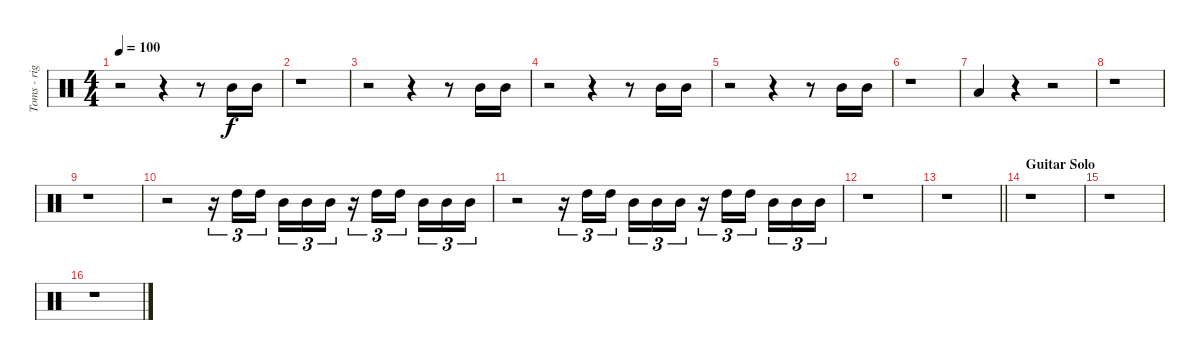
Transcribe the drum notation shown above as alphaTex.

\track ("Toms - right" "Toms - rig") {instrument percussion}
\staff {score}
\articulation defaults
\ts (4 4)
\tempo 100
\clef neutral
\ks c
r.2{dy f} r.4 r.8 "Mid Tom (hit)".16 "Mid Tom (hit)".16 |
r.1 |
r.2 r.4 r.8 "Mid Tom (hit)".16 "Mid Tom (hit)".16 |
r.2 r.4 r.8 "Mid Tom (hit)".16 "Mid Tom (hit)".16 |
r.2 r.4 r.8 "Mid Tom (hit)".16 "Mid Tom (hit)".16 |
r.1 |
"Low Tom (hit)".4 r.4 r.2 |
r.1 |
r.1 |
r.2 r.16{tu (3 2)} "High Tom (hit)".16{tu (3 2)} "High Tom (hit)".16{tu (3 2) beam splitsecondary} "Mid Tom (hit)".16{tu (3 2)} "Mid Tom (hit)".16{tu (3 2)} "Mid Tom (hit)".16{tu (3 2)} r.16{tu (3 2)} "High Tom (hit)".16{tu (3 2)} "High Tom (hit)".16{tu (3 2) beam splitsecondary} "Mid Tom (hit)".16{tu (3 2)} "Mid Tom (hit)".16{tu (3 2)} "Mid Tom (hit)".16{tu (3 2)} |
r.2 r.16{tu (3 2)} "High Tom (hit)".16{tu (3 2)} "High Tom (hit)".16{tu (3 2) beam splitsecondary} "Mid Tom (hit)".16{tu (3 2)} "Mid Tom (hit)".16{tu (3 2)} "Mid Tom (hit)".16{tu (3 2)} r.16{tu (3 2)} "High Tom (hit)".16{tu (3 2)} "High Tom (hit)".16{tu (3 2) beam splitsecondary} "Mid Tom (hit)".16{tu (3 2)} "Mid Tom (hit)".16{tu (3 2)} "Mid Tom (hit)".16{tu (3 2)} |
r.1 |
\barLineRight lightlight
r.1 |
\section ("" "Guitar Solo")
r.1 |
r.1 |
r.1
